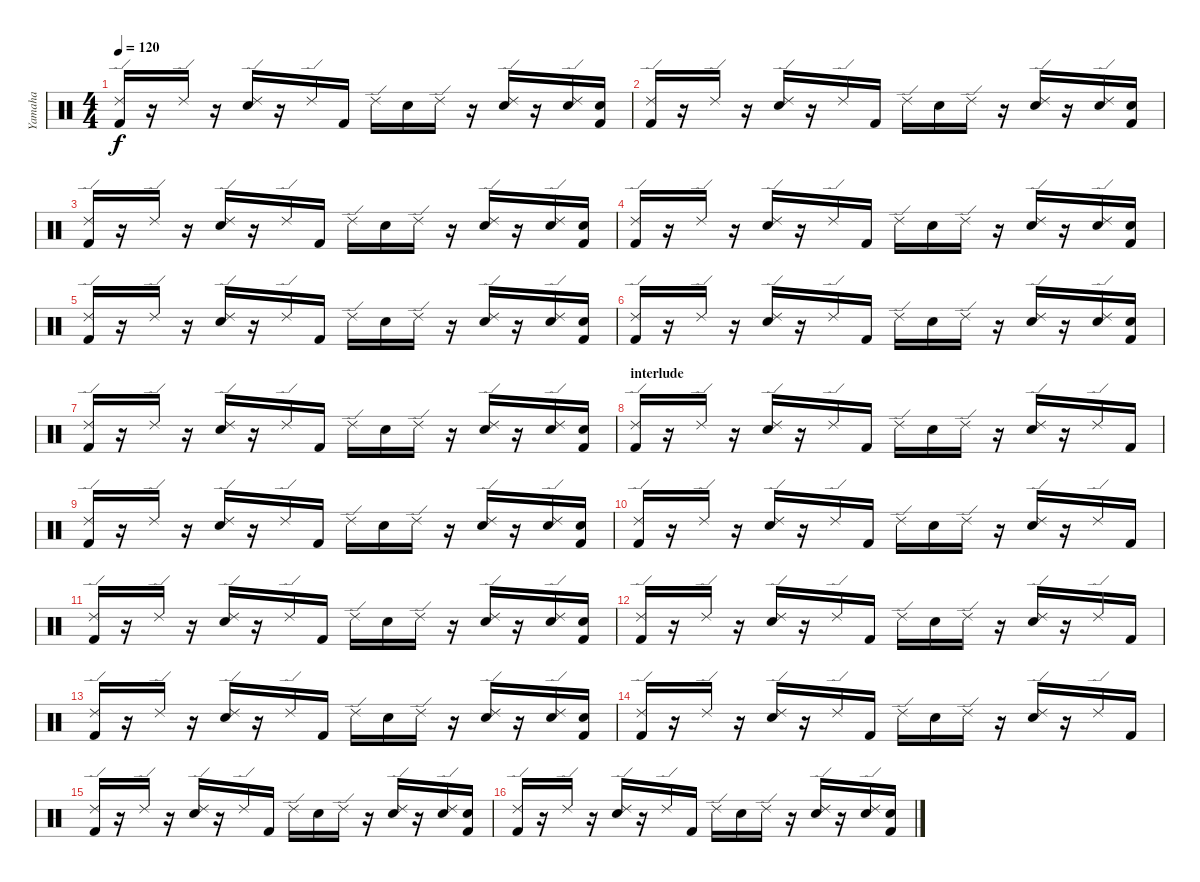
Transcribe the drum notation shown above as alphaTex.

\track ("Yamaha" "Yamaha") {instrument percussion}
\staff {score}
\articulation defaults
\ts (4 4)
\tempo 120
\clef neutral
\ks c
("Ride (edge) 2" "Kick (hit) 2").16{dy f} r.16 "Ride (edge) 2".16 r.16 ("Ride (edge) 2" "Snare (hit) 2").16 r.16 "Ride (edge) 2".16 "Kick (hit) 2".16 "Ride (edge) 2".16 "Snare (hit) 2".16 "Ride (edge) 2".16 r.16 ("Ride (edge) 2" "Snare (hit) 2").16 r.16 ("Ride (edge) 2" "Snare (hit) 2").16 ("Snare (hit) 2" "Kick (hit) 2").16 |
("Ride (edge) 2" "Kick (hit) 2").16 r.16 "Ride (edge) 2".16 r.16 ("Ride (edge) 2" "Snare (hit) 2").16 r.16 "Ride (edge) 2".16 "Kick (hit) 2".16 "Ride (edge) 2".16 "Snare (hit) 2".16 "Ride (edge) 2".16 r.16 ("Ride (edge) 2" "Snare (hit) 2").16 r.16 ("Ride (edge) 2" "Snare (hit) 2").16 ("Snare (hit) 2" "Kick (hit) 2").16 |
("Ride (edge) 2" "Kick (hit) 2").16 r.16 "Ride (edge) 2".16 r.16 ("Ride (edge) 2" "Snare (hit) 2").16 r.16 "Ride (edge) 2".16 "Kick (hit) 2".16 "Ride (edge) 2".16 "Snare (hit) 2".16 "Ride (edge) 2".16 r.16 ("Ride (edge) 2" "Snare (hit) 2").16 r.16 ("Ride (edge) 2" "Snare (hit) 2").16 ("Snare (hit) 2" "Kick (hit) 2").16 |
("Ride (edge) 2" "Kick (hit) 2").16 r.16 "Ride (edge) 2".16 r.16 ("Ride (edge) 2" "Snare (hit) 2").16 r.16 "Ride (edge) 2".16 "Kick (hit) 2".16 "Ride (edge) 2".16 "Snare (hit) 2".16 "Ride (edge) 2".16 r.16 ("Ride (edge) 2" "Snare (hit) 2").16 r.16 ("Ride (edge) 2" "Snare (hit) 2").16 ("Snare (hit) 2" "Kick (hit) 2").16 |
("Ride (edge) 2" "Kick (hit) 2").16 r.16 "Ride (edge) 2".16 r.16 ("Ride (edge) 2" "Snare (hit) 2").16 r.16 "Ride (edge) 2".16 "Kick (hit) 2".16 "Ride (edge) 2".16 "Snare (hit) 2".16 "Ride (edge) 2".16 r.16 ("Ride (edge) 2" "Snare (hit) 2").16 r.16 ("Ride (edge) 2" "Snare (hit) 2").16 ("Snare (hit) 2" "Kick (hit) 2").16 |
("Ride (edge) 2" "Kick (hit) 2").16 r.16 "Ride (edge) 2".16 r.16 ("Ride (edge) 2" "Snare (hit) 2").16 r.16 "Ride (edge) 2".16 "Kick (hit) 2".16 "Ride (edge) 2".16 "Snare (hit) 2".16 "Ride (edge) 2".16 r.16 ("Ride (edge) 2" "Snare (hit) 2").16 r.16 ("Ride (edge) 2" "Snare (hit) 2").16 ("Snare (hit) 2" "Kick (hit) 2").16 |
("Ride (edge) 2" "Kick (hit) 2").16 r.16 "Ride (edge) 2".16 r.16 ("Ride (edge) 2" "Snare (hit) 2").16 r.16 "Ride (edge) 2".16 "Kick (hit) 2".16 "Ride (edge) 2".16 "Snare (hit) 2".16 "Ride (edge) 2".16 r.16 ("Ride (edge) 2" "Snare (hit) 2").16 r.16 ("Ride (edge) 2" "Snare (hit) 2").16 ("Snare (hit) 2" "Kick (hit) 2").16 |
\section ("" "interlude")
("Ride (edge) 2" "Kick (hit) 2").16 r.16 "Ride (edge) 2".16 r.16 ("Ride (edge) 2" "Snare (hit) 2").16 r.16 "Ride (edge) 2".16 "Kick (hit) 2".16 "Ride (edge) 2".16 "Snare (hit) 2".16 "Ride (edge) 2".16 r.16 ("Ride (edge) 2" "Snare (hit) 2").16 r.16 "Ride (edge) 2".16 "Kick (hit) 2".16 |
("Ride (edge) 2" "Kick (hit) 2").16 r.16 "Ride (edge) 2".16 r.16 ("Ride (edge) 2" "Snare (hit) 2").16 r.16 "Ride (edge) 2".16 "Kick (hit) 2".16 "Ride (edge) 2".16 "Snare (hit) 2".16 "Ride (edge) 2".16 r.16 ("Ride (edge) 2" "Snare (hit) 2").16 r.16 ("Ride (edge) 2" "Snare (hit) 2").16 ("Snare (hit) 2" "Kick (hit) 2").16 |
("Ride (edge) 2" "Kick (hit) 2").16 r.16 "Ride (edge) 2".16 r.16 ("Ride (edge) 2" "Snare (hit) 2").16 r.16 "Ride (edge) 2".16 "Kick (hit) 2".16 "Ride (edge) 2".16 "Snare (hit) 2".16 "Ride (edge) 2".16 r.16 ("Ride (edge) 2" "Snare (hit) 2").16 r.16 "Ride (edge) 2".16 "Kick (hit) 2".16 |
("Ride (edge) 2" "Kick (hit) 2").16 r.16 "Ride (edge) 2".16 r.16 ("Ride (edge) 2" "Snare (hit) 2").16 r.16 "Ride (edge) 2".16 "Kick (hit) 2".16 "Ride (edge) 2".16 "Snare (hit) 2".16 "Ride (edge) 2".16 r.16 ("Ride (edge) 2" "Snare (hit) 2").16 r.16 ("Ride (edge) 2" "Snare (hit) 2").16 ("Snare (hit) 2" "Kick (hit) 2").16 |
("Ride (edge) 2" "Kick (hit) 2").16 r.16 "Ride (edge) 2".16 r.16 ("Ride (edge) 2" "Snare (hit) 2").16 r.16 "Ride (edge) 2".16 "Kick (hit) 2".16 "Ride (edge) 2".16 "Snare (hit) 2".16 "Ride (edge) 2".16 r.16 ("Ride (edge) 2" "Snare (hit) 2").16 r.16 "Ride (edge) 2".16 "Kick (hit) 2".16 |
("Ride (edge) 2" "Kick (hit) 2").16 r.16 "Ride (edge) 2".16 r.16 ("Ride (edge) 2" "Snare (hit) 2").16 r.16 "Ride (edge) 2".16 "Kick (hit) 2".16 "Ride (edge) 2".16 "Snare (hit) 2".16 "Ride (edge) 2".16 r.16 ("Ride (edge) 2" "Snare (hit) 2").16 r.16 ("Ride (edge) 2" "Snare (hit) 2").16 ("Snare (hit) 2" "Kick (hit) 2").16 |
("Ride (edge) 2" "Kick (hit) 2").16 r.16 "Ride (edge) 2".16 r.16 ("Ride (edge) 2" "Snare (hit) 2").16 r.16 "Ride (edge) 2".16 "Kick (hit) 2".16 "Ride (edge) 2".16 "Snare (hit) 2".16 "Ride (edge) 2".16 r.16 ("Ride (edge) 2" "Snare (hit) 2").16 r.16 "Ride (edge) 2".16 "Kick (hit) 2".16 |
("Ride (edge) 2" "Kick (hit) 2").16 r.16 "Ride (edge) 2".16 r.16 ("Ride (edge) 2" "Snare (hit) 2").16 r.16 "Ride (edge) 2".16 "Kick (hit) 2".16 "Ride (edge) 2".16 "Snare (hit) 2".16 "Ride (edge) 2".16 r.16 ("Ride (edge) 2" "Snare (hit) 2").16 r.16 ("Ride (edge) 2" "Snare (hit) 2").16 ("Snare (hit) 2" "Kick (hit) 2").16 |
("Ride (edge) 2" "Kick (hit) 2").16 r.16 "Ride (edge) 2".16 r.16 ("Ride (edge) 2" "Snare (hit) 2").16 r.16 "Ride (edge) 2".16 "Kick (hit) 2".16 "Ride (edge) 2".16 "Snare (hit) 2".16 "Ride (edge) 2".16 r.16 ("Ride (edge) 2" "Snare (hit) 2").16 r.16 ("Ride (edge) 2" "Snare (hit) 2").16 ("Snare (hit) 2" "Kick (hit) 2").16
